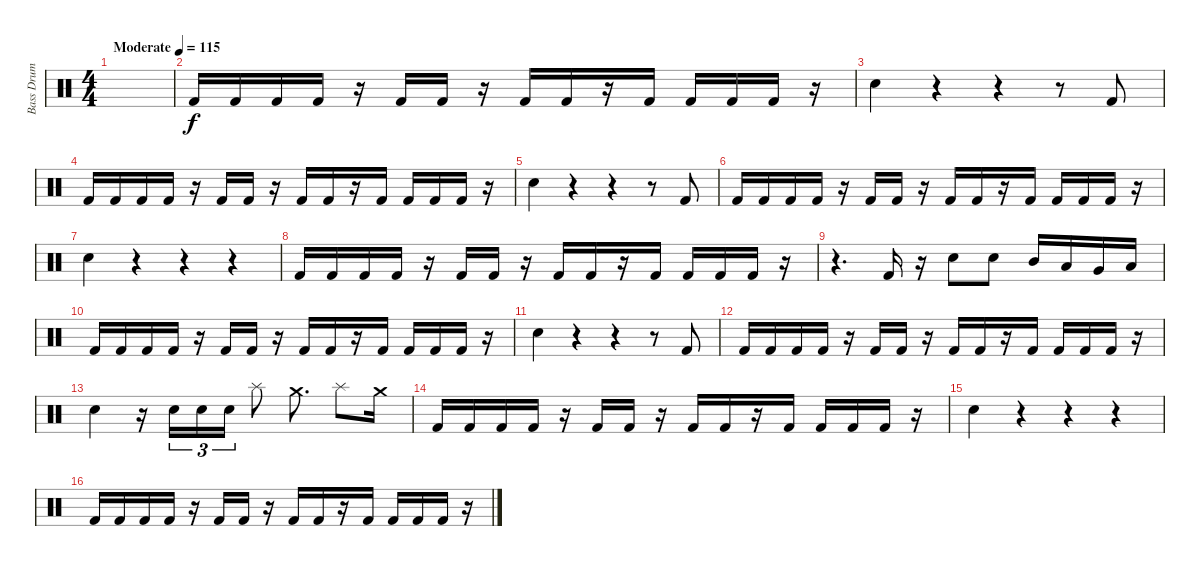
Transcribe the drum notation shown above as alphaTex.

\track ("Bass Drum + Snare" "Bass Drum ") {instrument percussion}
\staff {score}
\articulation defaults
\ts (4 4)
\tempo (115 "Moderate")
\clef neutral
\ks c
|
"Kick (hit) 2".16 "Kick (hit) 2".16 "Kick (hit) 2".16 "Kick (hit) 2".16 r.16 "Kick (hit) 2".16 "Kick (hit) 2".16 r.16 "Kick (hit) 2".16 "Kick (hit) 2".16 r.16 "Kick (hit) 2".16 "Kick (hit) 2".16 "Kick (hit) 2".16 "Kick (hit) 2".16 r.16 |
"Snare (hit) 2".4 r.4 r.4 r.8 "Kick (hit) 2".8 |
"Kick (hit) 2".16 "Kick (hit) 2".16 "Kick (hit) 2".16 "Kick (hit) 2".16 r.16 "Kick (hit) 2".16 "Kick (hit) 2".16 r.16 "Kick (hit) 2".16 "Kick (hit) 2".16 r.16 "Kick (hit) 2".16 "Kick (hit) 2".16 "Kick (hit) 2".16 "Kick (hit) 2".16 r.16 |
"Snare (hit) 2".4 r.4 r.4 r.8 "Kick (hit) 2".8 |
"Kick (hit) 2".16 "Kick (hit) 2".16 "Kick (hit) 2".16 "Kick (hit) 2".16 r.16 "Kick (hit) 2".16 "Kick (hit) 2".16 r.16 "Kick (hit) 2".16 "Kick (hit) 2".16 r.16 "Kick (hit) 2".16 "Kick (hit) 2".16 "Kick (hit) 2".16 "Kick (hit) 2".16 r.16 |
"Snare (hit) 2".4 r.4 r.4 r.4 |
"Kick (hit) 2".16 "Kick (hit) 2".16 "Kick (hit) 2".16 "Kick (hit) 2".16 r.16 "Kick (hit) 2".16 "Kick (hit) 2".16 r.16 "Kick (hit) 2".16 "Kick (hit) 2".16 r.16 "Kick (hit) 2".16 "Kick (hit) 2".16 "Kick (hit) 2".16 "Kick (hit) 2".16 r.16 |
r.4{d} "Kick (hit) 2".16 r.16 "Snare (hit) 2".8 "Snare (hit) 2".8 "Mid Tom (hit)".16 "Low Tom (hit)".16 "Very Low Tom (hit)".16 "Low Floor Tom (hit)".16 |
"Kick (hit) 2".16 "Kick (hit) 2".16 "Kick (hit) 2".16 "Kick (hit) 2".16 r.16 "Kick (hit) 2".16 "Kick (hit) 2".16 r.16 "Kick (hit) 2".16 "Kick (hit) 2".16 r.16 "Kick (hit) 2".16 "Kick (hit) 2".16 "Kick (hit) 2".16 "Kick (hit) 2".16 r.16 |
"Snare (hit) 2".4 r.4 r.4 r.8 "Kick (hit) 2".8 |
"Kick (hit) 2".16 "Kick (hit) 2".16 "Kick (hit) 2".16 "Kick (hit) 2".16 r.16 "Kick (hit) 2".16 "Kick (hit) 2".16 r.16 "Kick (hit) 2".16 "Kick (hit) 2".16 r.16 "Kick (hit) 2".16 "Kick (hit) 2".16 "Kick (hit) 2".16 "Kick (hit) 2".16 r.16 |
"Snare (hit) 2".4 r.16 "Snare (hit) 2".16{tu (3 2)} "Snare (hit) 2".16{tu (3 2)} "Snare (hit) 2".16{tu (3 2)} "Splash (hit)".8 "Crash medium (hit)".8{d} "Splash (hit)".8 "Crash medium (hit)".16 |
"Kick (hit) 2".16 "Kick (hit) 2".16 "Kick (hit) 2".16 "Kick (hit) 2".16 r.16 "Kick (hit) 2".16 "Kick (hit) 2".16 r.16 "Kick (hit) 2".16 "Kick (hit) 2".16 r.16 "Kick (hit) 2".16 "Kick (hit) 2".16 "Kick (hit) 2".16 "Kick (hit) 2".16 r.16 |
"Snare (hit) 2".4 r.4 r.4 r.4 |
"Kick (hit) 2".16 "Kick (hit) 2".16 "Kick (hit) 2".16 "Kick (hit) 2".16 r.16 "Kick (hit) 2".16 "Kick (hit) 2".16 r.16 "Kick (hit) 2".16 "Kick (hit) 2".16 r.16 "Kick (hit) 2".16 "Kick (hit) 2".16 "Kick (hit) 2".16 "Kick (hit) 2".16 r.16
